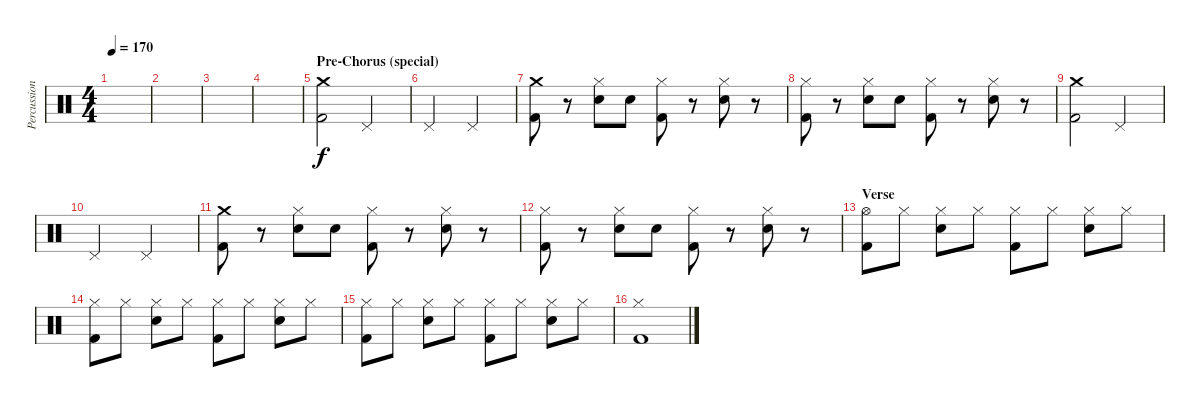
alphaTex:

\track ("Percussions" "Percussion") {instrument percussion}
\staff {score}
\articulation defaults
\ts (4 4)
\tempo 170
\clef neutral
\ks c
|
|
|
|
\section ("" "Pre-Chorus (special)")
("Crash medium (hit)" "Kick (hit) 2").2 "Pedal Hi-Hat (hit)".2 |
"Pedal Hi-Hat (hit)".2 "Pedal Hi-Hat (hit)".2 |
("Crash medium (hit)" "Kick (hit) 2").8 r.8 ("Hi-Hat (closed)" "Snare (hit) 2").8 "Snare (hit) 2".8 ("Hi-Hat (closed)" "Kick (hit) 2").8 r.8 ("Hi-Hat (closed)" "Snare (hit) 2").8 r.8 |
("Hi-Hat (closed)" "Kick (hit) 2").8 r.8 ("Hi-Hat (closed)" "Snare (hit) 2").8 "Snare (hit) 2".8 ("Hi-Hat (closed)" "Kick (hit) 2").8 r.8 ("Hi-Hat (closed)" "Snare (hit) 2").8 r.8 |
("Crash medium (hit)" "Kick (hit) 2").2 "Pedal Hi-Hat (hit)".2 |
"Pedal Hi-Hat (hit)".2 "Pedal Hi-Hat (hit)".2 |
("Crash medium (hit)" "Kick (hit) 2").8 r.8 ("Hi-Hat (closed)" "Snare (hit) 2").8 "Snare (hit) 2".8 ("Hi-Hat (closed)" "Kick (hit) 2").8 r.8 ("Hi-Hat (closed)" "Snare (hit) 2").8 r.8 |
("Hi-Hat (closed)" "Kick (hit) 2").8 r.8 ("Hi-Hat (closed)" "Snare (hit) 2").8 "Snare (hit) 2".8 ("Hi-Hat (closed)" "Kick (hit) 2").8 r.8 ("Hi-Hat (closed)" "Snare (hit) 2").8 r.8 |
\section ("" "Verse")
("Hi-Hat (open)" "Kick (hit) 2").8 "Hi-Hat (closed)".8 ("Hi-Hat (closed)" "Snare (hit) 2").8 "Hi-Hat (closed)".8 ("Hi-Hat (closed)" "Kick (hit) 2").8 "Hi-Hat (closed)".8 ("Hi-Hat (closed)" "Snare (hit) 2").8 "Hi-Hat (closed)".8 |
("Hi-Hat (closed)" "Kick (hit) 2").8 "Hi-Hat (closed)".8 ("Hi-Hat (closed)" "Snare (hit) 2").8 "Hi-Hat (closed)".8 ("Hi-Hat (closed)" "Kick (hit) 2").8 "Hi-Hat (closed)".8 ("Hi-Hat (closed)" "Snare (hit) 2").8 "Hi-Hat (closed)".8 |
("Hi-Hat (closed)" "Kick (hit) 2").8 "Hi-Hat (closed)".8 ("Hi-Hat (closed)" "Snare (hit) 2").8 "Hi-Hat (closed)".8 ("Hi-Hat (closed)" "Kick (hit) 2").8 "Hi-Hat (closed)".8 ("Hi-Hat (closed)" "Snare (hit) 2").8 "Hi-Hat (closed)".8 |
("Hi-Hat (closed)" "Kick (hit) 2").1
